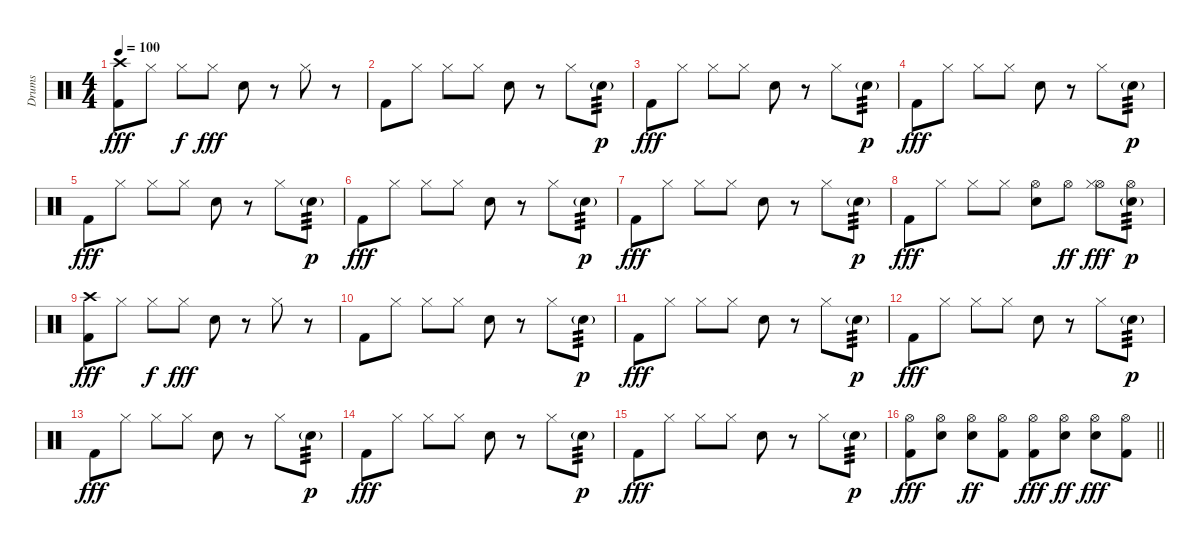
\track ("Drums" "Drums") {instrument percussion}
\staff {score}
\articulation defaults
\ts (4 4)
\tempo 100
\clef neutral
\ks c
("Crash high (hit)" "Kick (hit) 2").8{dy fff} "Hi-Hat (closed)".8 "Hi-Hat (closed)".8{dy f} "Hi-Hat (closed)".8{dy fff} "Electric Snare (hit)".8 r.8 "Hi-Hat (closed)".8 r.8 |
"Kick (hit) 2".8 "Hi-Hat (closed)".8 "Hi-Hat (closed)".8 "Hi-Hat (closed)".8 "Electric Snare (hit)".8 r.8 "Hi-Hat (closed)".8 "Electric Snare (hit)"{g}.8{tp 3 dy p} |
"Kick (hit) 2".8{dy fff} "Hi-Hat (closed)".8 "Hi-Hat (closed)".8 "Hi-Hat (closed)".8 "Electric Snare (hit)".8 r.8 "Hi-Hat (closed)".8 "Electric Snare (hit)"{g}.8{tp 3 dy p} |
"Kick (hit) 2".8{dy fff} "Hi-Hat (closed)".8 "Hi-Hat (closed)".8 "Hi-Hat (closed)".8 "Electric Snare (hit)".8 r.8 "Hi-Hat (closed)".8 "Electric Snare (hit)"{g}.8{tp 3 dy p} |
"Kick (hit) 2".8{dy fff} "Hi-Hat (closed)".8 "Hi-Hat (closed)".8 "Hi-Hat (closed)".8 "Electric Snare (hit)".8 r.8 "Hi-Hat (closed)".8 "Electric Snare (hit)"{g}.8{tp 3 dy p} |
"Kick (hit) 2".8{dy fff} "Hi-Hat (closed)".8 "Hi-Hat (closed)".8 "Hi-Hat (closed)".8 "Electric Snare (hit)".8 r.8 "Hi-Hat (closed)".8 "Electric Snare (hit)"{g}.8{tp 3 dy p} |
"Kick (hit) 2".8{dy fff} "Hi-Hat (closed)".8 "Hi-Hat (closed)".8 "Hi-Hat (closed)".8 "Electric Snare (hit)".8 r.8 "Hi-Hat (closed)".8 "Electric Snare (hit)"{g}.8{tp 3 dy p} |
"Kick (hit) 2".8{dy fff} "Hi-Hat (closed)".8 "Hi-Hat (closed)".8 "Hi-Hat (closed)".8 ("Hi-Hat (open)" "Electric Snare (hit)").8 "Hi-Hat (open)".8{dy ff} ("Hi-Hat (open)" "Hi-Hat (closed)").8{dy fff} ("Hi-Hat (open)" "Electric Snare (hit)"{g}).8{tp 3 dy p} |
("Crash high (hit)" "Kick (hit) 2").8{dy fff} "Hi-Hat (closed)".8 "Hi-Hat (closed)".8{dy f} "Hi-Hat (closed)".8{dy fff} "Electric Snare (hit)".8 r.8 "Hi-Hat (closed)".8 r.8 |
"Kick (hit) 2".8 "Hi-Hat (closed)".8 "Hi-Hat (closed)".8 "Hi-Hat (closed)".8 "Electric Snare (hit)".8 r.8 "Hi-Hat (closed)".8 "Electric Snare (hit)"{g}.8{tp 3 dy p} |
"Kick (hit) 2".8{dy fff} "Hi-Hat (closed)".8 "Hi-Hat (closed)".8 "Hi-Hat (closed)".8 "Electric Snare (hit)".8 r.8 "Hi-Hat (closed)".8 "Electric Snare (hit)"{g}.8{tp 3 dy p} |
"Kick (hit) 2".8{dy fff} "Hi-Hat (closed)".8 "Hi-Hat (closed)".8 "Hi-Hat (closed)".8 "Electric Snare (hit)".8 r.8 "Hi-Hat (closed)".8 "Electric Snare (hit)"{g}.8{tp 3 dy p} |
"Kick (hit) 2".8{dy fff} "Hi-Hat (closed)".8 "Hi-Hat (closed)".8 "Hi-Hat (closed)".8 "Electric Snare (hit)".8 r.8 "Hi-Hat (closed)".8 "Electric Snare (hit)"{g}.8{tp 3 dy p} |
"Kick (hit) 2".8{dy fff} "Hi-Hat (closed)".8 "Hi-Hat (closed)".8 "Hi-Hat (closed)".8 "Electric Snare (hit)".8 r.8 "Hi-Hat (closed)".8 "Electric Snare (hit)"{g}.8{tp 3 dy p} |
"Kick (hit) 2".8{dy fff} "Hi-Hat (closed)".8 "Hi-Hat (closed)".8 "Hi-Hat (closed)".8 "Electric Snare (hit)".8 r.8 "Hi-Hat (closed)".8 "Electric Snare (hit)"{g}.8{tp 3 dy p} |
\barLineRight lightlight
("Hi-Hat (open)" "Kick (hit) 2").8{dy fff} ("Hi-Hat (open)" "Electric Snare (hit)").8 ("Hi-Hat (open)" "Electric Snare (hit)").8{dy ff} ("Hi-Hat (open)" "Kick (hit) 2").8 ("Hi-Hat (open)" "Kick (hit) 2").8{dy fff} ("Hi-Hat (open)" "Electric Snare (hit)").8{dy ff} ("Hi-Hat (open)" "Electric Snare (hit)").8{dy fff} ("Hi-Hat (open)" "Kick (hit) 2").8
